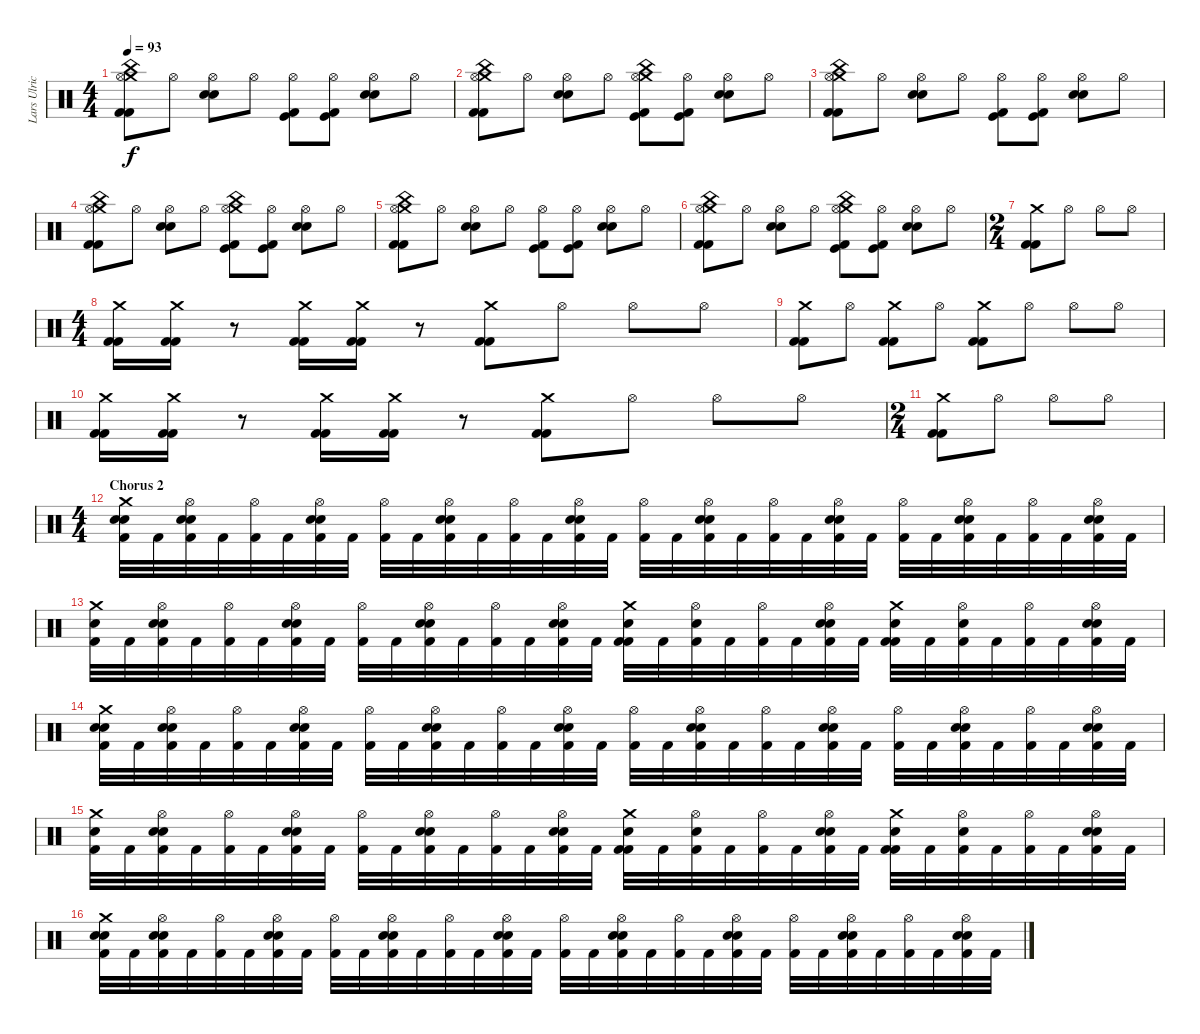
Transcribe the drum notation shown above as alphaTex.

\track ("Lars Ulrich" "Lars Ulric") {instrument percussion}
\staff {score}
\articulation defaults
\ts (4 4)
\tempo 93
\clef neutral
\ks c
("Crash medium (hit)" "Hi-Hat (open)" "China (hit)" "Kick (hit) 2" "Kick (hit) 2").8{dy f} "Hi-Hat (open)".8 ("Hi-Hat (open)" "Electric Snare (hit)" "Snare (hit) 2").8 "Hi-Hat (open)".8 ("Hi-Hat (open)" "Kick (hit) 2" "Kick (hit)").8 ("Hi-Hat (open)" "Kick (hit) 2" "Kick (hit)").8 ("Hi-Hat (open)" "Electric Snare (hit)" "Snare (hit) 2").8 "Hi-Hat (open)".8 |
("Crash medium (hit)" "Hi-Hat (open)" "China (hit)" "Kick (hit) 2" "Kick (hit) 2").8 "Hi-Hat (open)".8 ("Hi-Hat (open)" "Electric Snare (hit)" "Snare (hit) 2").8 "Hi-Hat (open)".8 ("Crash medium (hit)" "Hi-Hat (open)" "China (hit)" "Kick (hit) 2" "Kick (hit)").8 ("Hi-Hat (open)" "Kick (hit) 2" "Kick (hit)").8 ("Hi-Hat (open)" "Electric Snare (hit)" "Snare (hit) 2").8 "Hi-Hat (open)".8 |
("Crash medium (hit)" "Hi-Hat (open)" "China (hit)" "Kick (hit) 2" "Kick (hit) 2").8 "Hi-Hat (open)".8 ("Hi-Hat (open)" "Electric Snare (hit)" "Snare (hit) 2").8 "Hi-Hat (open)".8 ("Hi-Hat (open)" "Kick (hit) 2" "Kick (hit)").8 ("Hi-Hat (open)" "Kick (hit) 2" "Kick (hit)").8 ("Hi-Hat (open)" "Electric Snare (hit)" "Snare (hit) 2").8 "Hi-Hat (open)".8 |
("Crash medium (hit)" "Hi-Hat (open)" "China (hit)" "Kick (hit) 2" "Kick (hit) 2").8 "Hi-Hat (open)".8 ("Hi-Hat (open)" "Electric Snare (hit)" "Snare (hit) 2").8 "Hi-Hat (open)".8 ("Crash medium (hit)" "Hi-Hat (open)" "China (hit)" "Kick (hit) 2" "Kick (hit)").8 ("Hi-Hat (open)" "Kick (hit) 2" "Kick (hit)").8 ("Hi-Hat (open)" "Electric Snare (hit)" "Snare (hit) 2").8 "Hi-Hat (open)".8 |
("Crash medium (hit)" "Hi-Hat (open)" "China (hit)" "Kick (hit) 2" "Kick (hit) 2").8 "Hi-Hat (open)".8 ("Hi-Hat (open)" "Electric Snare (hit)" "Snare (hit) 2").8 "Hi-Hat (open)".8 ("Hi-Hat (open)" "Kick (hit) 2" "Kick (hit)").8 ("Hi-Hat (open)" "Kick (hit) 2" "Kick (hit)").8 ("Hi-Hat (open)" "Electric Snare (hit)" "Snare (hit) 2").8 "Hi-Hat (open)".8 |
("Crash medium (hit)" "Hi-Hat (open)" "China (hit)" "Kick (hit) 2" "Kick (hit) 2").8 "Hi-Hat (open)".8 ("Hi-Hat (open)" "Electric Snare (hit)" "Snare (hit) 2").8 "Hi-Hat (open)".8 ("Crash medium (hit)" "Hi-Hat (open)" "China (hit)" "Kick (hit) 2" "Kick (hit)").8 ("Hi-Hat (open)" "Kick (hit) 2" "Kick (hit)").8 ("Hi-Hat (open)" "Electric Snare (hit)" "Snare (hit) 2").8 "Hi-Hat (open)".8 |
\ts (2 4)
("Crash medium (hit)" "Kick (hit) 2" "Kick (hit) 2").8 "Hi-Hat (open)".8 "Hi-Hat (open)".8 "Hi-Hat (open)".8 |
\ts (4 4)
("Crash medium (hit)" "Kick (hit) 2" "Kick (hit) 2").16 ("Crash medium (hit)" "Kick (hit) 2" "Kick (hit) 2").16 r.8 ("Crash medium (hit)" "Kick (hit) 2" "Kick (hit) 2").16 ("Crash medium (hit)" "Kick (hit) 2" "Kick (hit) 2").16 r.8 ("Crash medium (hit)" "Kick (hit) 2" "Kick (hit) 2").8 "Hi-Hat (open)".8 "Hi-Hat (open)".8 "Hi-Hat (open)".8 |
("Crash medium (hit)" "Kick (hit) 2" "Kick (hit) 2").8 "Hi-Hat (open)".8 ("Crash medium (hit)" "Kick (hit) 2" "Kick (hit) 2").8 "Hi-Hat (open)".8 ("Crash medium (hit)" "Kick (hit) 2" "Kick (hit) 2").8 "Hi-Hat (open)".8 "Hi-Hat (open)".8 "Hi-Hat (open)".8 |
("Crash medium (hit)" "Kick (hit) 2" "Kick (hit) 2").16 ("Crash medium (hit)" "Kick (hit) 2" "Kick (hit) 2").16 r.8 ("Crash medium (hit)" "Kick (hit) 2" "Kick (hit) 2").16 ("Crash medium (hit)" "Kick (hit) 2" "Kick (hit) 2").16 r.8 ("Crash medium (hit)" "Kick (hit) 2" "Kick (hit) 2").8 "Hi-Hat (open)".8 "Hi-Hat (open)".8 "Hi-Hat (open)".8 |
\ts (2 4)
("Crash medium (hit)" "Kick (hit) 2" "Kick (hit) 2").8 "Hi-Hat (open)".8 "Hi-Hat (open)".8 "Hi-Hat (open)".8 |
\ts (4 4)
\section ("" "Chorus 2")
("Crash medium (hit)" "Snare (hit) 2" "Snare (hit) 2" "Kick (hit) 2").32 "Kick (hit) 2".32 ("Hi-Hat (open)" "Electric Snare (hit)" "Snare (hit) 2" "Kick (hit) 2").32 "Kick (hit) 2".32 ("Hi-Hat (open)" "Kick (hit) 2").32 "Kick (hit) 2".32 ("Hi-Hat (open)" "Electric Snare (hit)" "Snare (hit) 2" "Kick (hit) 2").32 "Kick (hit) 2".32 ("Hi-Hat (open)" "Kick (hit) 2").32 "Kick (hit) 2".32 ("Hi-Hat (open)" "Electric Snare (hit)" "Snare (hit) 2" "Kick (hit) 2").32 "Kick (hit) 2".32 ("Hi-Hat (open)" "Kick (hit) 2").32 "Kick (hit) 2".32 ("Hi-Hat (open)" "Electric Snare (hit)" "Snare (hit) 2" "Kick (hit) 2").32 "Kick (hit) 2".32 ("Hi-Hat (open)" "Kick (hit) 2").32 "Kick (hit) 2".32 ("Hi-Hat (open)" "Electric Snare (hit)" "Snare (hit) 2" "Kick (hit) 2").32 "Kick (hit) 2".32 ("Hi-Hat (open)" "Kick (hit) 2").32 "Kick (hit) 2".32 ("Hi-Hat (open)" "Electric Snare (hit)" "Snare (hit) 2" "Kick (hit) 2").32 "Kick (hit) 2".32 ("Hi-Hat (open)" "Kick (hit) 2").32 "Kick (hit) 2".32 ("Hi-Hat (open)" "Electric Snare (hit)" "Snare (hit) 2" "Kick (hit) 2").32 "Kick (hit) 2".32 ("Hi-Hat (open)" "Kick (hit) 2").32 "Kick (hit) 2".32 ("Hi-Hat (open)" "Electric Snare (hit)" "Snare (hit) 2" "Kick (hit) 2").32 "Kick (hit) 2".32 |
("Crash medium (hit)" "Snare (hit) 2" "Kick (hit) 2").32 "Kick (hit) 2".32 ("Hi-Hat (open)" "Electric Snare (hit)" "Snare (hit) 2" "Kick (hit) 2").32 "Kick (hit) 2".32 ("Hi-Hat (open)" "Kick (hit) 2").32 "Kick (hit) 2".32 ("Hi-Hat (open)" "Electric Snare (hit)" "Snare (hit) 2" "Kick (hit) 2").32 "Kick (hit) 2".32 ("Hi-Hat (open)" "Kick (hit) 2").32 "Kick (hit) 2".32 ("Hi-Hat (open)" "Electric Snare (hit)" "Snare (hit) 2" "Kick (hit) 2").32 "Kick (hit) 2".32 ("Hi-Hat (open)" "Kick (hit) 2").32 "Kick (hit) 2".32 ("Hi-Hat (open)" "Electric Snare (hit)" "Snare (hit) 2" "Kick (hit) 2").32 "Kick (hit) 2".32 ("Crash medium (hit)" "Snare (hit) 2" "Kick (hit) 2" "Kick (hit) 2").32 "Kick (hit) 2".32 ("Hi-Hat (open)" "Electric Snare (hit)" "Kick (hit) 2").32 "Kick (hit) 2".32 ("Hi-Hat (open)" "Kick (hit) 2").32 "Kick (hit) 2".32 ("Hi-Hat (open)" "Electric Snare (hit)" "Snare (hit) 2" "Kick (hit) 2").32 "Kick (hit) 2".32 ("Crash medium (hit)" "Snare (hit) 2" "Kick (hit) 2" "Kick (hit) 2").32 "Kick (hit) 2".32 ("Hi-Hat (open)" "Electric Snare (hit)" "Kick (hit) 2").32 "Kick (hit) 2".32 ("Hi-Hat (open)" "Kick (hit) 2").32 "Kick (hit) 2".32 ("Hi-Hat (open)" "Electric Snare (hit)" "Snare (hit) 2" "Kick (hit) 2").32 "Kick (hit) 2".32 |
("Crash medium (hit)" "Snare (hit) 2" "Snare (hit) 2" "Kick (hit) 2").32 "Kick (hit) 2".32 ("Hi-Hat (open)" "Electric Snare (hit)" "Snare (hit) 2" "Kick (hit) 2").32 "Kick (hit) 2".32 ("Hi-Hat (open)" "Kick (hit) 2").32 "Kick (hit) 2".32 ("Hi-Hat (open)" "Electric Snare (hit)" "Snare (hit) 2" "Kick (hit) 2").32 "Kick (hit) 2".32 ("Hi-Hat (open)" "Kick (hit) 2").32 "Kick (hit) 2".32 ("Hi-Hat (open)" "Electric Snare (hit)" "Snare (hit) 2" "Kick (hit) 2").32 "Kick (hit) 2".32 ("Hi-Hat (open)" "Kick (hit) 2").32 "Kick (hit) 2".32 ("Hi-Hat (open)" "Electric Snare (hit)" "Snare (hit) 2" "Kick (hit) 2").32 "Kick (hit) 2".32 ("Hi-Hat (open)" "Kick (hit) 2").32 "Kick (hit) 2".32 ("Hi-Hat (open)" "Electric Snare (hit)" "Snare (hit) 2" "Kick (hit) 2").32 "Kick (hit) 2".32 ("Hi-Hat (open)" "Kick (hit) 2").32 "Kick (hit) 2".32 ("Hi-Hat (open)" "Electric Snare (hit)" "Snare (hit) 2" "Kick (hit) 2").32 "Kick (hit) 2".32 ("Hi-Hat (open)" "Kick (hit) 2").32 "Kick (hit) 2".32 ("Hi-Hat (open)" "Electric Snare (hit)" "Snare (hit) 2" "Kick (hit) 2").32 "Kick (hit) 2".32 ("Hi-Hat (open)" "Kick (hit) 2").32 "Kick (hit) 2".32 ("Hi-Hat (open)" "Electric Snare (hit)" "Snare (hit) 2" "Kick (hit) 2").32 "Kick (hit) 2".32 |
("Crash medium (hit)" "Snare (hit) 2" "Kick (hit) 2").32 "Kick (hit) 2".32 ("Hi-Hat (open)" "Electric Snare (hit)" "Snare (hit) 2" "Kick (hit) 2").32 "Kick (hit) 2".32 ("Hi-Hat (open)" "Kick (hit) 2").32 "Kick (hit) 2".32 ("Hi-Hat (open)" "Electric Snare (hit)" "Snare (hit) 2" "Kick (hit) 2").32 "Kick (hit) 2".32 ("Hi-Hat (open)" "Kick (hit) 2").32 "Kick (hit) 2".32 ("Hi-Hat (open)" "Electric Snare (hit)" "Snare (hit) 2" "Kick (hit) 2").32 "Kick (hit) 2".32 ("Hi-Hat (open)" "Kick (hit) 2").32 "Kick (hit) 2".32 ("Hi-Hat (open)" "Electric Snare (hit)" "Snare (hit) 2" "Kick (hit) 2").32 "Kick (hit) 2".32 ("Crash medium (hit)" "Snare (hit) 2" "Kick (hit) 2" "Kick (hit) 2").32 "Kick (hit) 2".32 ("Hi-Hat (open)" "Electric Snare (hit)" "Kick (hit) 2").32 "Kick (hit) 2".32 ("Hi-Hat (open)" "Kick (hit) 2").32 "Kick (hit) 2".32 ("Hi-Hat (open)" "Electric Snare (hit)" "Snare (hit) 2" "Kick (hit) 2").32 "Kick (hit) 2".32 ("Crash medium (hit)" "Snare (hit) 2" "Kick (hit) 2" "Kick (hit) 2").32 "Kick (hit) 2".32 ("Hi-Hat (open)" "Electric Snare (hit)" "Kick (hit) 2").32 "Kick (hit) 2".32 ("Hi-Hat (open)" "Kick (hit) 2").32 "Kick (hit) 2".32 ("Hi-Hat (open)" "Electric Snare (hit)" "Snare (hit) 2" "Kick (hit) 2").32 "Kick (hit) 2".32 |
("Crash medium (hit)" "Snare (hit) 2" "Snare (hit) 2" "Kick (hit) 2").32 "Kick (hit) 2".32 ("Hi-Hat (open)" "Electric Snare (hit)" "Snare (hit) 2" "Kick (hit) 2").32 "Kick (hit) 2".32 ("Hi-Hat (open)" "Kick (hit) 2").32 "Kick (hit) 2".32 ("Hi-Hat (open)" "Electric Snare (hit)" "Snare (hit) 2" "Kick (hit) 2").32 "Kick (hit) 2".32 ("Hi-Hat (open)" "Kick (hit) 2").32 "Kick (hit) 2".32 ("Hi-Hat (open)" "Electric Snare (hit)" "Snare (hit) 2" "Kick (hit) 2").32 "Kick (hit) 2".32 ("Hi-Hat (open)" "Kick (hit) 2").32 "Kick (hit) 2".32 ("Hi-Hat (open)" "Electric Snare (hit)" "Snare (hit) 2" "Kick (hit) 2").32 "Kick (hit) 2".32 ("Hi-Hat (open)" "Kick (hit) 2").32 "Kick (hit) 2".32 ("Hi-Hat (open)" "Electric Snare (hit)" "Snare (hit) 2" "Kick (hit) 2").32 "Kick (hit) 2".32 ("Hi-Hat (open)" "Kick (hit) 2").32 "Kick (hit) 2".32 ("Hi-Hat (open)" "Electric Snare (hit)" "Snare (hit) 2" "Kick (hit) 2").32 "Kick (hit) 2".32 ("Hi-Hat (open)" "Kick (hit) 2").32 "Kick (hit) 2".32 ("Hi-Hat (open)" "Electric Snare (hit)" "Snare (hit) 2" "Kick (hit) 2").32 "Kick (hit) 2".32 ("Hi-Hat (open)" "Kick (hit) 2").32 "Kick (hit) 2".32 ("Hi-Hat (open)" "Electric Snare (hit)" "Snare (hit) 2" "Kick (hit) 2").32 "Kick (hit) 2".32
